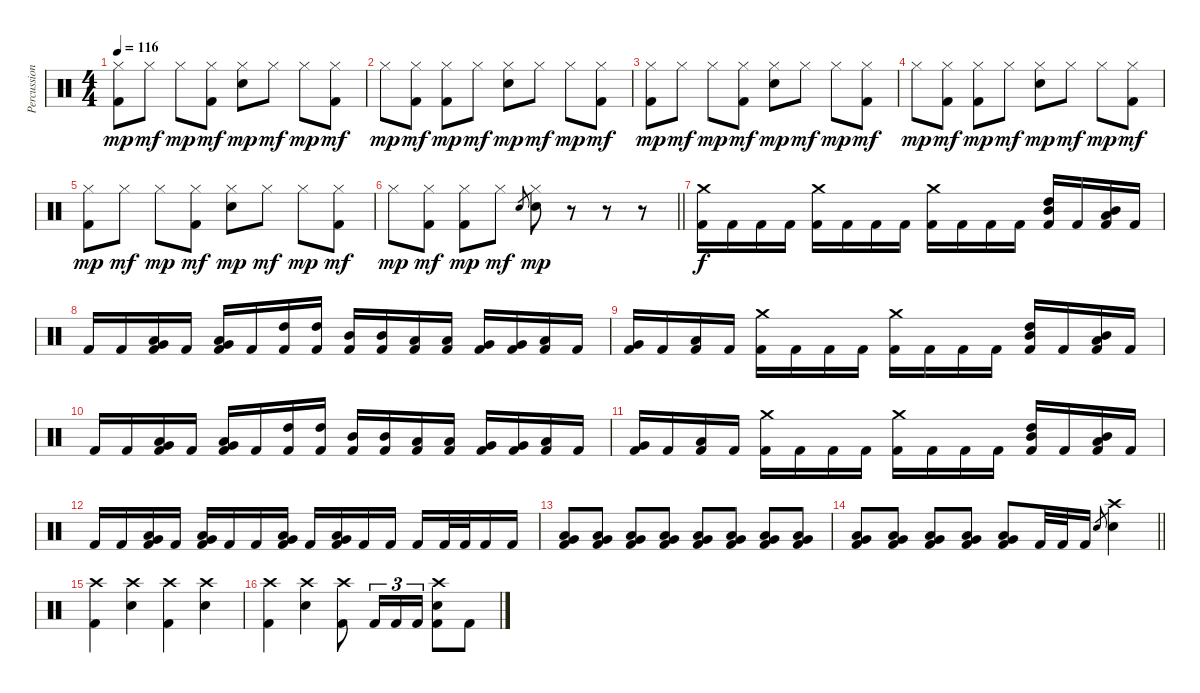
\track ("Percussion (Moose)" "Percussion") {instrument percussion}
\staff {score}
\articulation defaults
\ts (4 4)
\tempo 116
\clef neutral
\ks c
("Kick (hit) 2" "Hi-Hat (closed)").8{dy mp} "Hi-Hat (closed)".8{dy mf} "Hi-Hat (closed)".8{dy mp} ("Kick (hit) 2" "Hi-Hat (closed)").8{dy mf} ("Snare (hit) 2" "Hi-Hat (closed)").8{dy mp} "Hi-Hat (closed)".8{dy mf} "Hi-Hat (closed)".8{dy mp} ("Kick (hit) 2" "Hi-Hat (closed)").8{dy mf} |
"Hi-Hat (closed)".8{dy mp} ("Kick (hit) 2" "Hi-Hat (closed)").8{dy mf} ("Kick (hit) 2" "Hi-Hat (closed)").8{dy mp} "Hi-Hat (closed)".8{dy mf} ("Snare (hit) 2" "Hi-Hat (closed)").8{dy mp} "Hi-Hat (closed)".8{dy mf} "Hi-Hat (closed)".8{dy mp} ("Kick (hit) 2" "Hi-Hat (closed)").8{dy mf} |
("Kick (hit) 2" "Hi-Hat (closed)").8{dy mp} "Hi-Hat (closed)".8{dy mf} "Hi-Hat (closed)".8{dy mp} ("Kick (hit) 2" "Hi-Hat (closed)").8{dy mf} ("Snare (hit) 2" "Hi-Hat (closed)").8{dy mp} "Hi-Hat (closed)".8{dy mf} "Hi-Hat (closed)".8{dy mp} ("Kick (hit) 2" "Hi-Hat (closed)").8{dy mf} |
"Hi-Hat (closed)".8{dy mp} ("Kick (hit) 2" "Hi-Hat (closed)").8{dy mf} ("Kick (hit) 2" "Hi-Hat (closed)").8{dy mp} "Hi-Hat (closed)".8{dy mf} ("Snare (hit) 2" "Hi-Hat (closed)").8{dy mp} "Hi-Hat (closed)".8{dy mf} "Hi-Hat (closed)".8{dy mp} ("Kick (hit) 2" "Hi-Hat (closed)").8{dy mf} |
("Kick (hit) 2" "Hi-Hat (closed)").8{dy mp} "Hi-Hat (closed)".8{dy mf} "Hi-Hat (closed)".8{dy mp} ("Kick (hit) 2" "Hi-Hat (closed)").8{dy mf} ("Snare (hit) 2" "Hi-Hat (closed)").8{dy mp} "Hi-Hat (closed)".8{dy mf} "Hi-Hat (closed)".8{dy mp} ("Kick (hit) 2" "Hi-Hat (closed)").8{dy mf} |
\barLineRight lightlight "Hi-Hat (closed)".8{dy mp}
("Kick (hit) 2" "Hi-Hat (closed)").8{dy mf} ("Kick (hit) 2" "Hi-Hat (closed)").8{dy mp} "Hi-Hat (closed)".8{dy mf} "Snare (hit) 2".8{gr} ("Snare (hit) 2" "Hi-Hat (closed)").8{dy mp} r.8 r.8 r.8 |
("Kick (hit) 2" "Crash medium (hit)").16{dy f} "Kick (hit) 2".16 "Kick (hit) 2".16 "Kick (hit) 2".16 ("Kick (hit) 2" "Crash medium (hit)").16 "Kick (hit) 2".16 "Kick (hit) 2".16 "Kick (hit) 2".16 ("Kick (hit) 2" "Crash medium (hit)").16 "Kick (hit) 2".16 "Kick (hit) 2".16 "Kick (hit) 2".16 ("Kick (hit) 2" "High Tom (hit)" "Mid Tom (hit)").16 "Kick (hit) 2".16 ("Kick (hit) 2" "Mid Tom (hit)" "Low Tom (hit)").16 "Kick (hit) 2".16 |
"Kick (hit) 2".16 "Kick (hit) 2".16 ("Kick (hit) 2" "Low Tom (hit)" "Very Low Tom (hit)").16 "Kick (hit) 2".16 ("Kick (hit) 2" "Very Low Tom (hit)" "Low Floor Tom (hit)").16 "Kick (hit) 2".16 ("Kick (hit) 2" "High Tom (hit)").16 ("Kick (hit) 2" "High Tom (hit)").16 ("Kick (hit) 2" "Mid Tom (hit)").16 ("Kick (hit) 2" "Mid Tom (hit)").16 ("Kick (hit) 2" "Low Tom (hit)").16 ("Kick (hit) 2" "Low Tom (hit)").16 ("Kick (hit) 2" "Very Low Tom (hit)").16 ("Kick (hit) 2" "Very Low Tom (hit)").16 ("Kick (hit) 2" "Low Floor Tom (hit)").16 "Kick (hit) 2".16 |
("Kick (hit) 2" "Very Low Tom (hit)").16 "Kick (hit) 2".16 ("Kick (hit) 2" "Low Floor Tom (hit)").16 "Kick (hit) 2".16 ("Kick (hit) 2" "Crash medium (hit)").16 "Kick (hit) 2".16 "Kick (hit) 2".16 "Kick (hit) 2".16 ("Kick (hit) 2" "Crash medium (hit)").16 "Kick (hit) 2".16 "Kick (hit) 2".16 "Kick (hit) 2".16 ("Kick (hit) 2" "High Tom (hit)" "Mid Tom (hit)").16 "Kick (hit) 2".16 ("Kick (hit) 2" "Mid Tom (hit)" "Low Tom (hit)").16 "Kick (hit) 2".16 |
"Kick (hit) 2".16 "Kick (hit) 2".16 ("Kick (hit) 2" "Low Tom (hit)" "Very Low Tom (hit)").16 "Kick (hit) 2".16 ("Kick (hit) 2" "Very Low Tom (hit)" "Low Floor Tom (hit)").16 "Kick (hit) 2".16 ("Kick (hit) 2" "High Tom (hit)").16 ("Kick (hit) 2" "High Tom (hit)").16 ("Kick (hit) 2" "Mid Tom (hit)").16 ("Kick (hit) 2" "Mid Tom (hit)").16 ("Kick (hit) 2" "Low Tom (hit)").16 ("Kick (hit) 2" "Low Tom (hit)").16 ("Kick (hit) 2" "Very Low Tom (hit)").16 ("Kick (hit) 2" "Very Low Tom (hit)").16 ("Kick (hit) 2" "Low Floor Tom (hit)").16 "Kick (hit) 2".16 |
("Kick (hit) 2" "Very Low Tom (hit)").16 "Kick (hit) 2".16 ("Kick (hit) 2" "Low Floor Tom (hit)").16 "Kick (hit) 2".16 ("Kick (hit) 2" "Crash medium (hit)").16 "Kick (hit) 2".16 "Kick (hit) 2".16 "Kick (hit) 2".16 ("Kick (hit) 2" "Crash medium (hit)").16 "Kick (hit) 2".16 "Kick (hit) 2".16 "Kick (hit) 2".16 ("Kick (hit) 2" "High Tom (hit)" "Mid Tom (hit)").16 "Kick (hit) 2".16 ("Kick (hit) 2" "Mid Tom (hit)" "Low Tom (hit)").16 "Kick (hit) 2".16 |
"Kick (hit) 2".16 "Kick (hit) 2".16 ("Kick (hit) 2" "Low Tom (hit)" "Very Low Tom (hit)").16 "Kick (hit) 2".16 ("Kick (hit) 2" "Very Low Tom (hit)" "Low Floor Tom (hit)").16 "Kick (hit) 2".16 "Kick (hit) 2".16 ("Kick (hit) 2" "Low Tom (hit)" "Very Low Tom (hit)").16 "Kick (hit) 2".16 ("Kick (hit) 2" "Very Low Tom (hit)" "Low Floor Tom (hit)").16 "Kick (hit) 2".16 "Kick (hit) 2".16 "Kick (hit) 2".16 "Kick (hit) 2".32 "Kick (hit) 2".32 "Kick (hit) 2".16 "Kick (hit) 2".16 |
("Kick (hit) 2" "Low Tom (hit)" "Very Low Tom (hit)").8 ("Kick (hit) 2" "Low Tom (hit)" "Very Low Tom (hit)").8 ("Kick (hit) 2" "Low Tom (hit)" "Very Low Tom (hit)").8 ("Kick (hit) 2" "Low Tom (hit)" "Very Low Tom (hit)").8 ("Kick (hit) 2" "Low Tom (hit)" "Very Low Tom (hit)").8 ("Kick (hit) 2" "Low Tom (hit)" "Very Low Tom (hit)").8 ("Kick (hit) 2" "Low Tom (hit)" "Very Low Tom (hit)").8 ("Kick (hit) 2" "Low Tom (hit)" "Very Low Tom (hit)").8 |
\barLineRight lightlight
("Kick (hit) 2" "Low Tom (hit)" "Very Low Tom (hit)").8 ("Kick (hit) 2" "Low Tom (hit)" "Very Low Tom (hit)").8 ("Kick (hit) 2" "Low Tom (hit)" "Very Low Tom (hit)").8 ("Kick (hit) 2" "Low Tom (hit)" "Very Low Tom (hit)").8 ("Kick (hit) 2" "Low Tom (hit)" "Very Low Tom (hit)").8 "Kick (hit) 2".32 "Kick (hit) 2".32 "Kick (hit) 2".16 "Snare (hit) 2".8{gr} ("Snare (hit) 2" "Crash high (hit)").4 |
("Kick (hit) 2" "Crash high (hit)").4 ("Snare (hit) 2" "Crash high (hit)").4 ("Kick (hit) 2" "Crash high (hit)").4 ("Snare (hit) 2" "Crash high (hit)").4 |
("Kick (hit) 2" "Crash high (hit)").4 ("Snare (hit) 2" "Crash high (hit)").4 ("Kick (hit) 2" "Crash high (hit)").8 "Kick (hit) 2".16{tu (3 2)} "Kick (hit) 2".16{tu (3 2)} "Kick (hit) 2".16{tu (3 2)} ("Kick (hit) 2" "Snare (hit) 2" "Crash high (hit)").8 "Kick (hit) 2".8
